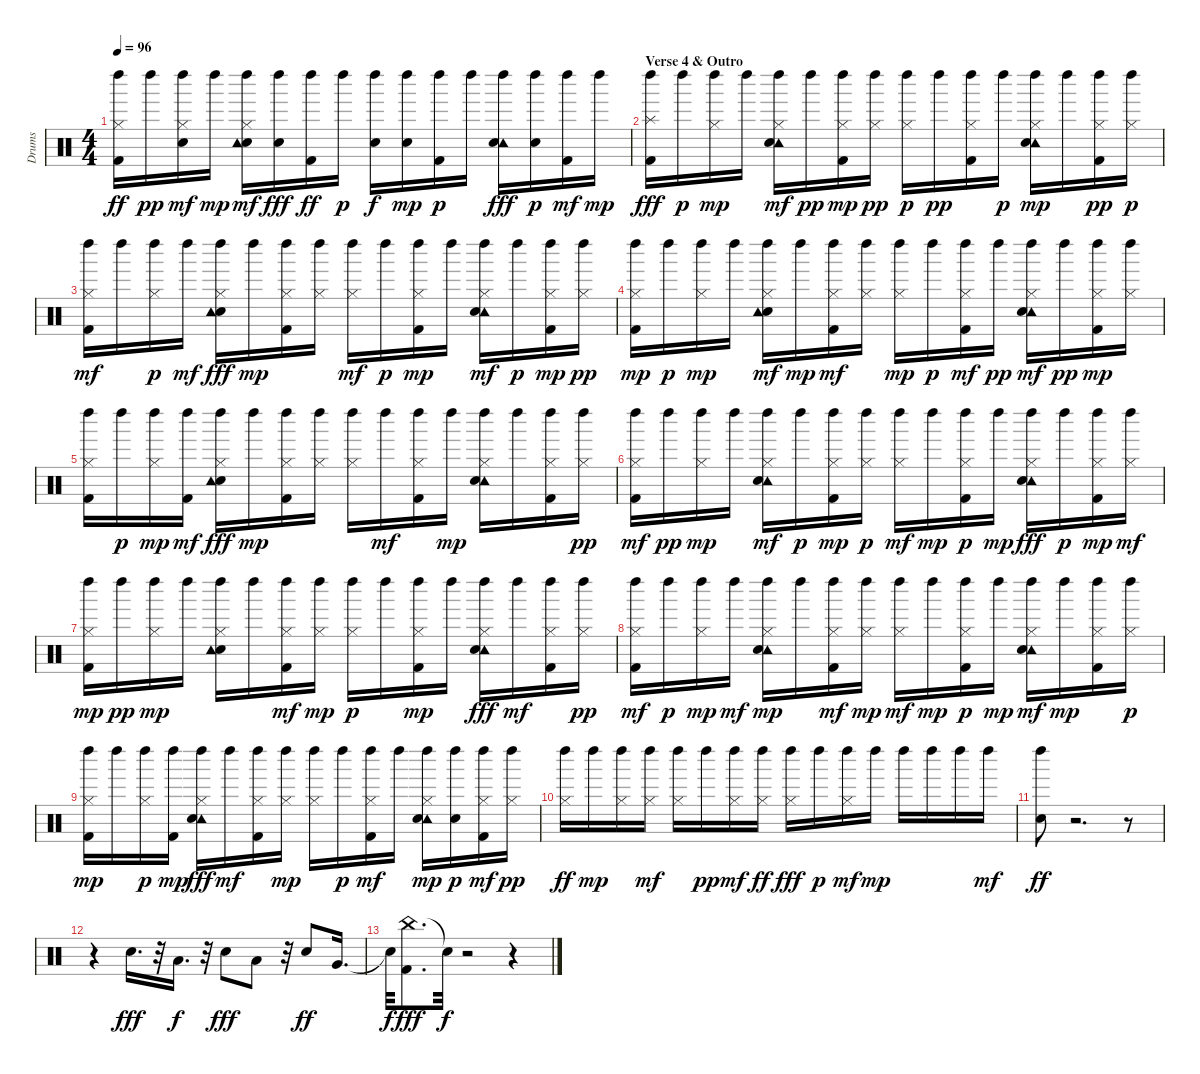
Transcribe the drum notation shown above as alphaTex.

\track ("Drums" "Drums") {instrument percussion}
\staff {score}
\articulation defaults
\ts (4 4)
\tempo 96
\clef neutral
\ks c
("Left Maraca (hit)" "Hi-Hat (closed)" "Kick (hit) 2").16{dy ff} "Left Maraca (hit)".16{dy pp} ("Left Maraca (hit)" "Electric Snare (hit)" "Hi-Hat (closed)").16{dy mf} "Left Maraca (hit)".16{dy mp} ("Electric Snare (hit)" "Tambourine (hit)" "Hi-Hat (closed)" "Left Maraca (hit)").16{dy mf} ("Left Maraca (hit)" "Electric Snare (hit)").16{dy fff} ("Left Maraca (hit)" "Kick (hit) 2").16{dy ff} "Left Maraca (hit)".16{dy p} ("Electric Snare (hit)" "Left Maraca (hit)").16{dy f} ("Electric Snare (hit)" "Left Maraca (hit)").16{dy mp} ("Kick (hit) 2" "Left Maraca (hit)").16{dy p} "Left Maraca (hit)".16 ("Left Maraca (hit)" "Tambourine (hit)" "Electric Snare (hit)").16{dy fff} ("Electric Snare (hit)" "Left Maraca (hit)").16{dy p} ("Left Maraca (hit)" "Kick (hit) 2").16{dy mf} "Left Maraca (hit)".16{dy mp} |
\section ("" "Verse 4 & Outro")
("Left Maraca (hit)" "Splash (hit)" "Kick (hit) 2").16{dy fff} "Left Maraca (hit)".16{dy p} ("Left Maraca (hit)" "Hi-Hat (closed)").16{dy mp} "Left Maraca (hit)".16 ("Left Maraca (hit)" "Tambourine (hit)" "Electric Snare (hit)" "Hi-Hat (closed)").16{dy mf} "Left Maraca (hit)".16{dy pp} ("Left Maraca (hit)" "Hi-Hat (closed)" "Kick (hit) 2").16{dy mp} ("Left Maraca (hit)" "Hi-Hat (closed)").16{dy pp} ("Left Maraca (hit)" "Hi-Hat (closed)").16{dy p} "Left Maraca (hit)".16{dy pp} ("Left Maraca (hit)" "Kick (hit) 2" "Hi-Hat (closed)").16 "Left Maraca (hit)".16{dy p} ("Tambourine (hit)" "Electric Snare (hit)" "Hi-Hat (closed)" "Left Maraca (hit)").16{dy mp} "Left Maraca (hit)".16 ("Hi-Hat (closed)" "Kick (hit) 2" "Left Maraca (hit)").16{dy pp} ("Hi-Hat (closed)" "Left Maraca (hit)").16{dy p} |
("Hi-Hat (closed)" "Kick (hit) 2" "Left Maraca (hit)").16{dy mf} "Left Maraca (hit)".16 ("Hi-Hat (closed)" "Left Maraca (hit)").16{dy p} "Left Maraca (hit)".16{dy mf} ("Hi-Hat (closed)" "Electric Snare (hit)" "Tambourine (hit)" "Left Maraca (hit)").16{dy fff} "Left Maraca (hit)".16{dy mp} ("Hi-Hat (closed)" "Kick (hit) 2" "Left Maraca (hit)").16 ("Hi-Hat (closed)" "Left Maraca (hit)").16 ("Hi-Hat (closed)" "Left Maraca (hit)").16{dy mf} "Left Maraca (hit)".16{dy p} ("Kick (hit) 2" "Hi-Hat (closed)" "Left Maraca (hit)").16{dy mp} "Left Maraca (hit)".16 ("Left Maraca (hit)" "Tambourine (hit)" "Electric Snare (hit)" "Hi-Hat (closed)").16{dy mf} "Left Maraca (hit)".16{dy p} ("Hi-Hat (closed)" "Kick (hit) 2" "Left Maraca (hit)").16{dy mp} ("Left Maraca (hit)" "Hi-Hat (closed)").16{dy pp} |
("Kick (hit) 2" "Hi-Hat (closed)" "Left Maraca (hit)").16{dy mp} "Left Maraca (hit)".16{dy p} ("Hi-Hat (closed)" "Left Maraca (hit)").16{dy mp} "Left Maraca (hit)".16 ("Electric Snare (hit)" "Tambourine (hit)" "Hi-Hat (closed)" "Left Maraca (hit)").16{dy mf} "Left Maraca (hit)".16{dy mp} ("Kick (hit) 2" "Hi-Hat (closed)" "Left Maraca (hit)").16{dy mf} ("Hi-Hat (closed)" "Left Maraca (hit)").16 ("Hi-Hat (closed)" "Left Maraca (hit)").16{dy mp} "Left Maraca (hit)".16{dy p} ("Kick (hit) 2" "Hi-Hat (closed)" "Left Maraca (hit)").16{dy mf} "Left Maraca (hit)".16{dy pp} ("Hi-Hat (closed)" "Tambourine (hit)" "Electric Snare (hit)" "Left Maraca (hit)").16{dy mf} "Left Maraca (hit)".16{dy pp} ("Kick (hit) 2" "Hi-Hat (closed)" "Left Maraca (hit)").16{dy mp} ("Left Maraca (hit)" "Hi-Hat (closed)").16 |
("Kick (hit) 2" "Hi-Hat (closed)" "Left Maraca (hit)").16 "Left Maraca (hit)".16{dy p} ("Left Maraca (hit)" "Hi-Hat (closed)").16{dy mp} ("Left Maraca (hit)" "Kick (hit) 2").16{dy mf} ("Left Maraca (hit)" "Electric Snare (hit)" "Tambourine (hit)" "Hi-Hat (closed)").16{dy fff} "Left Maraca (hit)".16{dy mp} ("Kick (hit) 2" "Hi-Hat (closed)" "Left Maraca (hit)").16 ("Hi-Hat (closed)" "Left Maraca (hit)").16 ("Hi-Hat (closed)" "Left Maraca (hit)").16 "Left Maraca (hit)".16{dy mf} ("Kick (hit) 2" "Hi-Hat (closed)" "Left Maraca (hit)").16 "Left Maraca (hit)".16{dy mp} ("Tambourine (hit)" "Electric Snare (hit)" "Hi-Hat (closed)" "Left Maraca (hit)").16 "Left Maraca (hit)".16 ("Left Maraca (hit)" "Hi-Hat (closed)" "Kick (hit) 2").16 ("Left Maraca (hit)" "Hi-Hat (closed)").16{dy pp} |
("Hi-Hat (closed)" "Kick (hit) 2" "Left Maraca (hit)").16{dy mf} "Left Maraca (hit)".16{dy pp} ("Hi-Hat (closed)" "Left Maraca (hit)").16{dy mp} "Left Maraca (hit)".16 ("Tambourine (hit)" "Electric Snare (hit)" "Hi-Hat (closed)" "Left Maraca (hit)").16{dy mf} "Left Maraca (hit)".16{dy p} ("Kick (hit) 2" "Hi-Hat (closed)" "Left Maraca (hit)").16{dy mp} ("Hi-Hat (closed)" "Left Maraca (hit)").16{dy p} ("Hi-Hat (closed)" "Left Maraca (hit)").16{dy mf} "Left Maraca (hit)".16{dy mp} ("Left Maraca (hit)" "Kick (hit) 2" "Hi-Hat (closed)").16{dy p} "Left Maraca (hit)".16{dy mp} ("Left Maraca (hit)" "Tambourine (hit)" "Electric Snare (hit)" "Hi-Hat (closed)").16{dy fff} "Left Maraca (hit)".16{dy p} ("Kick (hit) 2" "Hi-Hat (closed)" "Left Maraca (hit)").16{dy mp} ("Hi-Hat (closed)" "Left Maraca (hit)").16{dy mf} |
("Kick (hit) 2" "Hi-Hat (closed)" "Left Maraca (hit)").16{dy mp} "Left Maraca (hit)".16{dy pp} ("Left Maraca (hit)" "Hi-Hat (closed)").16{dy mp} "Left Maraca (hit)".16 ("Electric Snare (hit)" "Tambourine (hit)" "Hi-Hat (closed)" "Left Maraca (hit)").16 "Left Maraca (hit)".16 ("Left Maraca (hit)" "Hi-Hat (closed)" "Kick (hit) 2").16{dy mf} ("Left Maraca (hit)" "Hi-Hat (closed)").16{dy mp} ("Hi-Hat (closed)" "Left Maraca (hit)").16{dy p} "Left Maraca (hit)".16 ("Kick (hit) 2" "Hi-Hat (closed)" "Left Maraca (hit)").16{dy mp} "Left Maraca (hit)".16 ("Tambourine (hit)" "Electric Snare (hit)" "Hi-Hat (closed)" "Left Maraca (hit)").16{dy fff} "Left Maraca (hit)".16{dy mf} ("Hi-Hat (closed)" "Kick (hit) 2" "Left Maraca (hit)").16 ("Left Maraca (hit)" "Hi-Hat (closed)").16{dy pp} |
("Kick (hit) 2" "Hi-Hat (closed)" "Left Maraca (hit)").16{dy mf} "Left Maraca (hit)".16{dy p} ("Hi-Hat (closed)" "Left Maraca (hit)").16{dy mp} "Left Maraca (hit)".16{dy mf} ("Tambourine (hit)" "Electric Snare (hit)" "Hi-Hat (closed)" "Left Maraca (hit)").16{dy mp} "Left Maraca (hit)".16 ("Left Maraca (hit)" "Hi-Hat (closed)" "Kick (hit) 2").16{dy mf} ("Hi-Hat (closed)" "Left Maraca (hit)").16{dy mp} ("Hi-Hat (closed)" "Left Maraca (hit)").16{dy mf} "Left Maraca (hit)".16{dy mp} ("Kick (hit) 2" "Hi-Hat (closed)" "Left Maraca (hit)").16{dy p} "Left Maraca (hit)".16{dy mp} ("Tambourine (hit)" "Electric Snare (hit)" "Hi-Hat (closed)" "Left Maraca (hit)").16{dy mf} "Left Maraca (hit)".16{dy mp} ("Hi-Hat (closed)" "Kick (hit) 2" "Left Maraca (hit)").16 ("Hi-Hat (closed)" "Left Maraca (hit)").16{dy p} |
("Kick (hit) 2" "Hi-Hat (closed)" "Left Maraca (hit)").16{dy mp} "Left Maraca (hit)".16 ("Left Maraca (hit)" "Hi-Hat (closed)").16{dy p} ("Kick (hit) 2" "Left Maraca (hit)").16{dy mp} ("Left Maraca (hit)" "Hi-Hat (closed)" "Tambourine (hit)" "Electric Snare (hit)").16{dy fff} "Left Maraca (hit)".16{dy mf} ("Left Maraca (hit)" "Kick (hit) 2" "Hi-Hat (closed)").16 ("Hi-Hat (closed)" "Left Maraca (hit)").16{dy mp} ("Hi-Hat (closed)" "Left Maraca (hit)").16 "Left Maraca (hit)".16{dy p} ("Kick (hit) 2" "Hi-Hat (closed)" "Left Maraca (hit)").16{dy mf} "Left Maraca (hit)".16 ("Hi-Hat (closed)" "Tambourine (hit)" "Electric Snare (hit)" "Left Maraca (hit)").16{dy mp} ("Electric Snare (hit)" "Left Maraca (hit)").16{dy p} ("Kick (hit) 2" "Hi-Hat (closed)" "Left Maraca (hit)").16{dy mf} ("Left Maraca (hit)" "Hi-Hat (closed)").16{dy pp} |
("Left Maraca (hit)" "Hi-Hat (closed)").16{dy ff} "Left Maraca (hit)".16{dy mp} ("Left Maraca (hit)" "Hi-Hat (closed)").16 ("Left Maraca (hit)" "Hi-Hat (closed)").16{dy mf} ("Left Maraca (hit)" "Hi-Hat (closed)").16 "Left Maraca (hit)".16{dy pp} ("Left Maraca (hit)" "Hi-Hat (closed)").16{dy mf} ("Left Maraca (hit)" "Hi-Hat (closed)").16{dy ff} ("Left Maraca (hit)" "Hi-Hat (closed)").16{dy fff} "Left Maraca (hit)".16{dy p} ("Left Maraca (hit)" "Hi-Hat (closed)").16{dy mf} "Left Maraca (hit)".16{dy mp} "Left Maraca (hit)".16 "Left Maraca (hit)".16 "Left Maraca (hit)".16 "Left Maraca (hit)".16{dy mf} |
("Electric Snare (hit)" "Left Maraca (hit)").8{dy ff} r.2{d} r.8 |
r.4 "Electric Snare (hit)".16{d dy fff} r.32 "Low Tom (hit)".16{d dy f} r.32 "Electric Snare (hit)".8{dy fff} "Low Tom (hit)".8 r.32 "Electric Snare (hit)".8{dy ff} "Very Low Tom (hit)".16{d} |
"Snare (hit)"{t}.32{dy f} ("China (hit)" "Kick (hit) 2").8{d dy fff} "Snare (hit)"{t}.32{dy f} r.2 r.4
